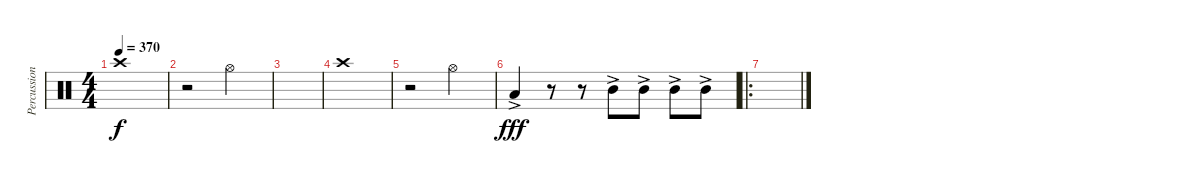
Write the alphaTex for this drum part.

\track ("Percussions" "Percussion") {instrument percussion}
\staff {score}
\articulation defaults
\ts (4 4)
\tempo 370
\clef neutral
\ks c "Crash high (hit)".1{dy f}
|
r.2 "Hi-Hat (open)".2 |
|
"Crash high (hit)".1 |
r.2 "Hi-Hat (open)".2 |
"Low Tom (hit)"{ac}.4{dy fff} r.8 r.8 "Mid Tom (hit)"{ac}.8 "Mid Tom (hit)"{ac}.8 "Mid Tom (hit)"{ac}.8 "Mid Tom (hit)"{ac}.8 |
\ro
